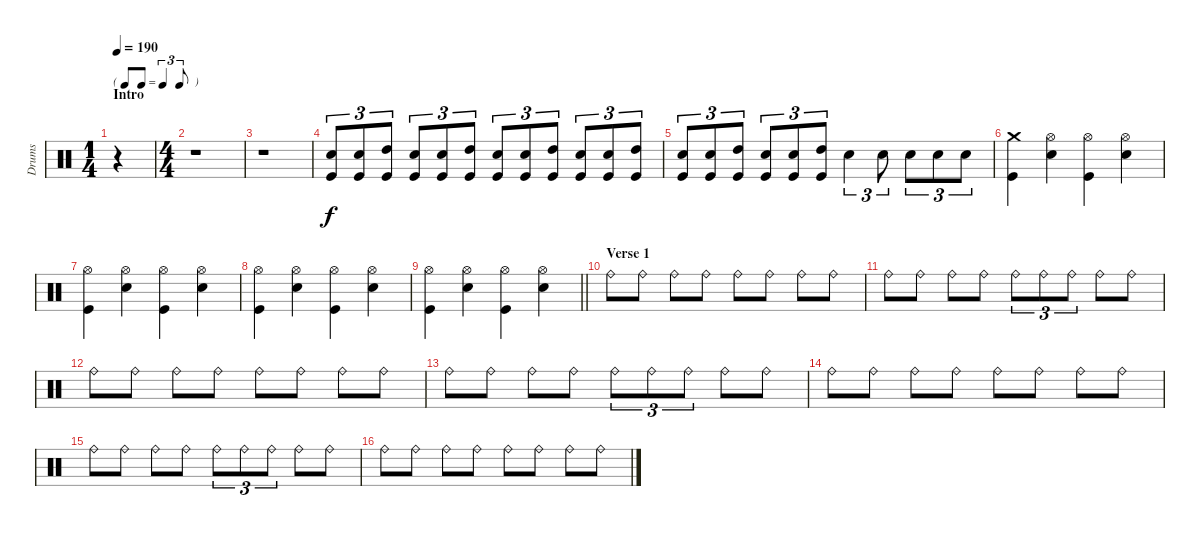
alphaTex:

\track ("Drums" "Drums") {instrument percussion}
\staff {score}
\articulation defaults
\ts (1 4)
\tf triplet8th
\section ("" "Intro")
\tempo 190
\clef neutral
\ks c
r.4{dy f} |
\ts (4 4)
r.1 |
r.1 |
("Electric Snare (hit)" "Kick (hit)").8{tu (3 2)} ("Electric Snare (hit)" "Kick (hit)").8{tu (3 2)} ("High Tom (hit)" "Kick (hit)").8{tu (3 2)} ("Electric Snare (hit)" "Kick (hit)").8{tu (3 2)} ("Electric Snare (hit)" "Kick (hit)").8{tu (3 2)} ("High Tom (hit)" "Kick (hit)").8{tu (3 2)} ("Electric Snare (hit)" "Kick (hit)").8{tu (3 2)} ("Electric Snare (hit)" "Kick (hit)").8{tu (3 2)} ("High Tom (hit)" "Kick (hit)").8{tu (3 2)} ("Electric Snare (hit)" "Kick (hit)").8{tu (3 2)} ("Electric Snare (hit)" "Kick (hit)").8{tu (3 2)} ("High Tom (hit)" "Kick (hit)").8{tu (3 2)} |
("Electric Snare (hit)" "Kick (hit)").8{tu (3 2)} ("Electric Snare (hit)" "Kick (hit)").8{tu (3 2)} ("High Tom (hit)" "Kick (hit)").8{tu (3 2)} ("Electric Snare (hit)" "Kick (hit)").8{tu (3 2)} ("Electric Snare (hit)" "Kick (hit)").8{tu (3 2)} ("High Tom (hit)" "Kick (hit)").8{tu (3 2)} "Electric Snare (hit)".4{tu (3 2)} "Electric Snare (hit)".8{tu (3 2)} "Electric Snare (hit)".8{tu (3 2)} "Electric Snare (hit)".8{tu (3 2)} "Electric Snare (hit)".8{tu (3 2)} |
("Crash medium (hit)" "Kick (hit)").4 ("Hi-Hat (open)" "Electric Snare (hit)").4 ("Hi-Hat (open)" "Kick (hit)").4 ("Hi-Hat (open)" "Electric Snare (hit)").4 |
("Hi-Hat (open)" "Kick (hit)").4 ("Hi-Hat (open)" "Electric Snare (hit)").4 ("Hi-Hat (open)" "Kick (hit)").4 ("Hi-Hat (open)" "Electric Snare (hit)").4 |
("Hi-Hat (open)" "Kick (hit)").4 ("Hi-Hat (open)" "Electric Snare (hit)").4 ("Hi-Hat (open)" "Kick (hit)").4 ("Hi-Hat (open)" "Electric Snare (hit)").4 |
\barLineRight lightlight
("Hi-Hat (open)" "Kick (hit)").4 ("Hi-Hat (open)" "Electric Snare (hit)").4 ("Hi-Hat (open)" "Kick (hit)").4 ("Hi-Hat (open)" "Electric Snare (hit)").4 |
\section ("" "Verse 1")
"Ride (bell)".8 "Ride (bell)".8 "Ride (bell)".8 "Ride (bell)".8 "Ride (bell)".8 "Ride (bell)".8 "Ride (bell)".8 "Ride (bell)".8 |
"Ride (bell)".8 "Ride (bell)".8 "Ride (bell)".8 "Ride (bell)".8 "Ride (bell)".8{tu (3 2)} "Ride (bell)".8{tu (3 2)} "Ride (bell)".8{tu (3 2)} "Ride (bell)".8 "Ride (bell)".8 |
"Ride (bell)".8 "Ride (bell)".8 "Ride (bell)".8 "Ride (bell)".8 "Ride (bell)".8 "Ride (bell)".8 "Ride (bell)".8 "Ride (bell)".8 |
"Ride (bell)".8 "Ride (bell)".8 "Ride (bell)".8 "Ride (bell)".8 "Ride (bell)".8{tu (3 2)} "Ride (bell)".8{tu (3 2)} "Ride (bell)".8{tu (3 2)} "Ride (bell)".8 "Ride (bell)".8 |
"Ride (bell)".8 "Ride (bell)".8 "Ride (bell)".8 "Ride (bell)".8 "Ride (bell)".8 "Ride (bell)".8 "Ride (bell)".8 "Ride (bell)".8 |
"Ride (bell)".8 "Ride (bell)".8 "Ride (bell)".8 "Ride (bell)".8 "Ride (bell)".8{tu (3 2)} "Ride (bell)".8{tu (3 2)} "Ride (bell)".8{tu (3 2)} "Ride (bell)".8 "Ride (bell)".8 |
"Ride (bell)".8 "Ride (bell)".8 "Ride (bell)".8 "Ride (bell)".8 "Ride (bell)".8 "Ride (bell)".8 "Ride (bell)".8 "Ride (bell)".8
